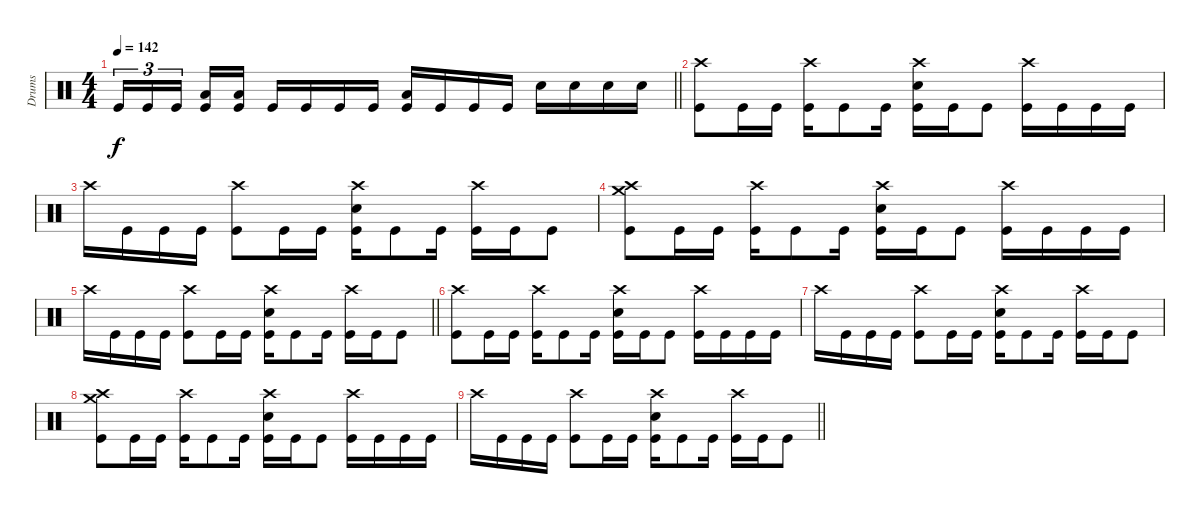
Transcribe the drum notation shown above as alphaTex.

\track ("Drums" "Drums") {instrument percussion}
\staff
\articulation defaults
\ts (4 4)
\tempo 142
\clef neutral
\barLineRight lightlight
\ks c "Kick (hit)".16{tu (3 2) dy f} "Kick (hit)".16{tu (3 2)} "Kick (hit)".16{tu (3 2) beam splitsecondary}
("Low Floor Tom (hit)" "Kick (hit)").16 ("Low Floor Tom (hit)" "Kick (hit)").16 "Kick (hit)".16 "Kick (hit)".16 "Kick (hit)".16 "Kick (hit)".16 ("Low Floor Tom (hit)" "Kick (hit)").16 "Kick (hit)".16 "Kick (hit)".16 "Kick (hit)".16 "Electric Snare (hit)".16 "Electric Snare (hit)".16 "Electric Snare (hit)".16 "Electric Snare (hit)".16 |
("Crash high (hit)" "Kick (hit)").8 "Kick (hit)".16 "Kick (hit)".16 ("Crash high (hit)" "Kick (hit)").16 "Kick (hit)".8 "Kick (hit)".16 ("Crash high (hit)" "Electric Snare (hit)" "Kick (hit)").16 "Kick (hit)".16 "Kick (hit)".8 ("Crash high (hit)" "Kick (hit)").16 "Kick (hit)".16 "Kick (hit)".16 "Kick (hit)".16 |
"Crash high (hit)".16 "Kick (hit)".16 "Kick (hit)".16 "Kick (hit)".16 ("Crash high (hit)" "Kick (hit)").8 "Kick (hit)".16 "Kick (hit)".16 ("Crash high (hit)" "Electric Snare (hit)" "Kick (hit)").16 "Kick (hit)".8 "Kick (hit)".16 ("Crash high (hit)" "Kick (hit)").16 "Kick (hit)".16 "Kick (hit)".8 |
("Crash high (hit)" "Crash medium (hit)" "Kick (hit)").8 "Kick (hit)".16 "Kick (hit)".16 ("Crash high (hit)" "Kick (hit)").16 "Kick (hit)".8 "Kick (hit)".16 ("Crash high (hit)" "Electric Snare (hit)" "Kick (hit)").16 "Kick (hit)".16 "Kick (hit)".8 ("Crash high (hit)" "Kick (hit)").16 "Kick (hit)".16 "Kick (hit)".16 "Kick (hit)".16 |
\barLineRight lightlight "Crash high (hit)".16 "Kick (hit)".16 "Kick (hit)".16 "Kick (hit)".16
("Crash high (hit)" "Kick (hit)").8 "Kick (hit)".16 "Kick (hit)".16 ("Crash high (hit)" "Electric Snare (hit)" "Kick (hit)").16 "Kick (hit)".8 "Kick (hit)".16 ("Crash high (hit)" "Kick (hit)").16 "Kick (hit)".16 "Kick (hit)".8 |
("Crash high (hit)" "Kick (hit)").8 "Kick (hit)".16 "Kick (hit)".16 ("Crash high (hit)" "Kick (hit)").16 "Kick (hit)".8 "Kick (hit)".16 ("Crash high (hit)" "Electric Snare (hit)" "Kick (hit)").16 "Kick (hit)".16 "Kick (hit)".8 ("Crash high (hit)" "Kick (hit)").16 "Kick (hit)".16 "Kick (hit)".16 "Kick (hit)".16 |
"Crash high (hit)".16 "Kick (hit)".16 "Kick (hit)".16 "Kick (hit)".16 ("Crash high (hit)" "Kick (hit)").8 "Kick (hit)".16 "Kick (hit)".16 ("Crash high (hit)" "Electric Snare (hit)" "Kick (hit)").16 "Kick (hit)".8 "Kick (hit)".16 ("Crash high (hit)" "Kick (hit)").16 "Kick (hit)".16 "Kick (hit)".8 |
("Crash high (hit)" "Crash medium (hit)" "Kick (hit)").8 "Kick (hit)".16 "Kick (hit)".16 ("Crash high (hit)" "Kick (hit)").16 "Kick (hit)".8 "Kick (hit)".16 ("Crash high (hit)" "Electric Snare (hit)" "Kick (hit)").16 "Kick (hit)".16 "Kick (hit)".8 ("Crash high (hit)" "Kick (hit)").16 "Kick (hit)".16 "Kick (hit)".16 "Kick (hit)".16 |
\barLineRight lightlight "Crash high (hit)".16 "Kick (hit)".16 "Kick (hit)".16 "Kick (hit)".16
("Crash high (hit)" "Kick (hit)").8 "Kick (hit)".16 "Kick (hit)".16 ("Crash high (hit)" "Electric Snare (hit)" "Kick (hit)").16 "Kick (hit)".8 "Kick (hit)".16 ("Crash high (hit)" "Kick (hit)").16 "Kick (hit)".16 "Kick (hit)".8
